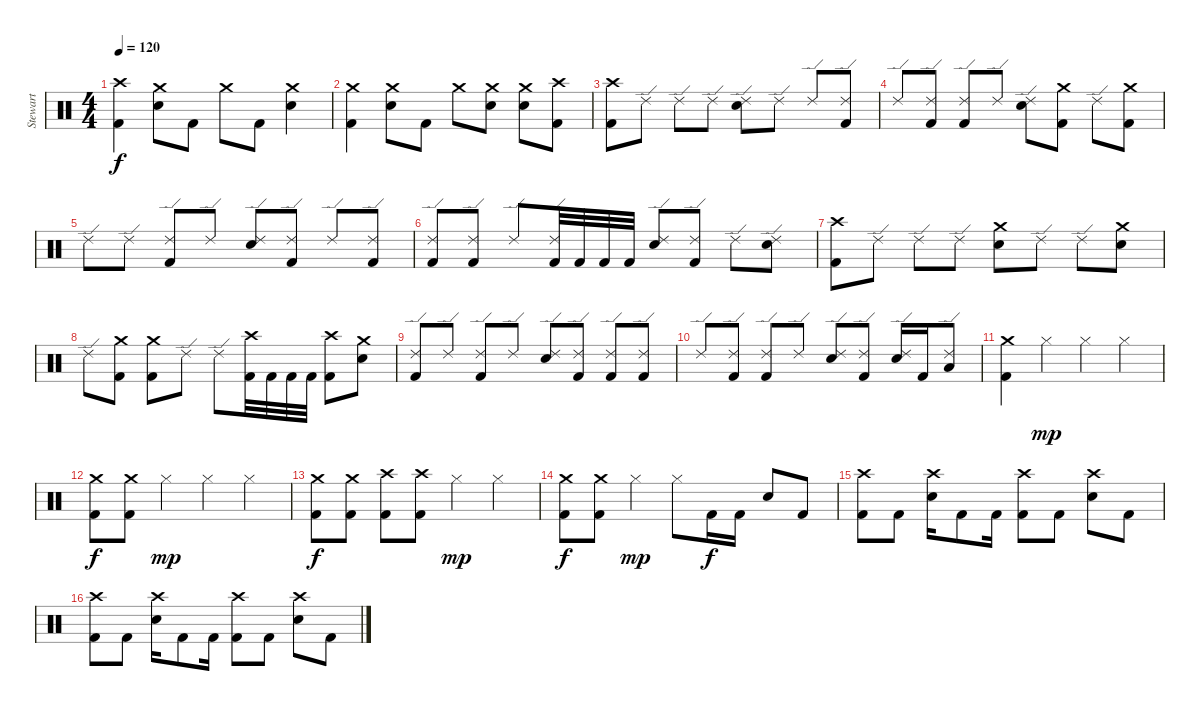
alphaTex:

\track ("Stewart" "Stewart") {instrument percussion}
\staff {score}
\articulation defaults
\ts (4 4)
\tempo 120
\clef neutral
\ks c
("Crash high (hit)" "Kick (hit) 2").4{dy f} ("Crash medium (hit)" "Electric Snare (hit)").8 "Kick (hit) 2".8 "Crash medium (hit)".8 "Kick (hit) 2".8 ("Crash medium (hit)" "Electric Snare (hit)").4 |
("Crash medium (hit)" "Kick (hit) 2").4 ("Crash medium (hit)" "Electric Snare (hit)").8 "Kick (hit) 2".8 "Crash medium (hit)".8 ("Crash medium (hit)" "Electric Snare (hit)").8 ("Crash medium (hit)" "Electric Snare (hit)").8 ("Crash high (hit)" "Kick (hit) 2").8 |
("Crash high (hit)" "Kick (hit) 2").8 "Ride (edge) 2".8 "Ride (edge) 2".8 "Ride (edge) 2".8 ("Ride (edge) 2" "Electric Snare (hit)").8 "Ride (edge) 2".8 "Ride (edge) 2".8 ("Ride (edge) 2" "Kick (hit) 2").8 |
"Ride (edge) 2".8 ("Ride (edge) 2" "Kick (hit) 2").8 ("Ride (edge) 2" "Kick (hit) 2").8 "Ride (edge) 2".8 ("Ride (edge) 2" "Electric Snare (hit)").8 ("Crash medium (hit)" "Kick (hit) 2").8 "Ride (edge) 2".8 ("Crash medium (hit)" "Kick (hit) 2").8 |
"Ride (edge) 2".8 "Ride (edge) 2".8 ("Ride (edge) 2" "Kick (hit) 2").8 "Ride (edge) 2".8 ("Ride (edge) 2" "Electric Snare (hit)").8 ("Ride (edge) 2" "Kick (hit) 2").8 "Ride (edge) 2".8 ("Ride (edge) 2" "Kick (hit) 2").8 |
("Ride (edge) 2" "Kick (hit) 2").8 ("Ride (edge) 2" "Kick (hit) 2").8 "Ride (edge) 2".8 ("Ride (edge) 2" "Kick (hit) 2").32 "Kick (hit) 2".32 "Kick (hit) 2".32 "Kick (hit) 2".32 ("Ride (edge) 2" "Electric Snare (hit)").8 ("Ride (edge) 2" "Kick (hit) 2").8 "Ride (edge) 2".8 ("Ride (edge) 2" "Electric Snare (hit)").8 |
("Crash high (hit)" "Kick (hit) 2").8 "Ride (edge) 2".8 "Ride (edge) 2".8 "Ride (edge) 2".8 ("Crash medium (hit)" "Electric Snare (hit)").8 "Ride (edge) 2".8 "Ride (edge) 2".8 ("Crash medium (hit)" "Electric Snare (hit)").8 |
"Ride (edge) 2".8 ("Crash medium (hit)" "Kick (hit) 2").8 ("Crash medium (hit)" "Kick (hit) 2").8 "Ride (edge) 2".8 "Ride (edge) 2".8 ("Crash high (hit)" "Kick (hit) 2").32 "Kick (hit) 2".32 "Kick (hit) 2".32 "Kick (hit) 2".32 ("Crash high (hit)" "Kick (hit) 2").8 ("Crash medium (hit)" "Electric Snare (hit)").8 |
("Ride (edge) 2" "Kick (hit) 2").8 "Ride (edge) 2".8 ("Ride (edge) 2" "Kick (hit) 2").8 "Ride (edge) 2".8 ("Ride (edge) 2" "Electric Snare (hit)").8 ("Ride (edge) 2" "Kick (hit) 2").8 ("Ride (edge) 2" "Kick (hit) 2").8 ("Ride (edge) 2" "Kick (hit) 2").8 |
"Ride (edge) 2".8 ("Ride (edge) 2" "Kick (hit) 2").8 ("Ride (edge) 2" "Kick (hit) 2").8 "Ride (edge) 2".8 ("Ride (edge) 2" "Electric Snare (hit)").8 ("Ride (edge) 2" "Kick (hit) 2").8 ("Ride (edge) 2" "Electric Snare (hit)").16 "Kick (hit) 2".16 ("Ride (edge) 2" "Low Tom (hit)").8 |
("Crash medium (hit)" "Kick (hit) 2").4 "Hi-Hat (closed)".4{dy mp} "Hi-Hat (closed)".4 "Hi-Hat (closed)".4 |
("Crash medium (hit)" "Kick (hit) 2").8{dy f} ("Crash medium (hit)" "Kick (hit) 2").8 "Hi-Hat (closed)".4{dy mp} "Hi-Hat (closed)".4 "Hi-Hat (closed)".4 |
("Crash medium (hit)" "Kick (hit) 2").8{dy f} ("Crash medium (hit)" "Kick (hit) 2").8 ("Crash high (hit)" "Kick (hit) 2").8 ("Crash high (hit)" "Kick (hit) 2").8 "Hi-Hat (closed)".4{dy mp} "Hi-Hat (closed)".4 |
("Crash medium (hit)" "Kick (hit) 2").8{dy f} ("Crash medium (hit)" "Kick (hit) 2").8 "Hi-Hat (closed)".4{dy mp} "Hi-Hat (closed)".8 "Kick (hit) 2".16{dy f} "Kick (hit) 2".16 "Electric Snare (hit)".8 "Kick (hit) 2".8 |
("Kick (hit) 2" "Crash high (hit)").8 "Kick (hit) 2".8 ("Electric Snare (hit)" "Crash high (hit)").16 "Kick (hit) 2".8 "Kick (hit) 2".16 ("Kick (hit) 2" "Crash high (hit)").8 "Kick (hit) 2".8 ("Electric Snare (hit)" "Crash high (hit)").8 "Kick (hit) 2".8 |
("Kick (hit) 2" "Crash high (hit)").8 "Kick (hit) 2".8 ("Electric Snare (hit)" "Crash high (hit)").16 "Kick (hit) 2".8 "Kick (hit) 2".16 ("Kick (hit) 2" "Crash high (hit)").8 "Kick (hit) 2".8 ("Electric Snare (hit)" "Crash high (hit)").8 "Kick (hit) 2".8
